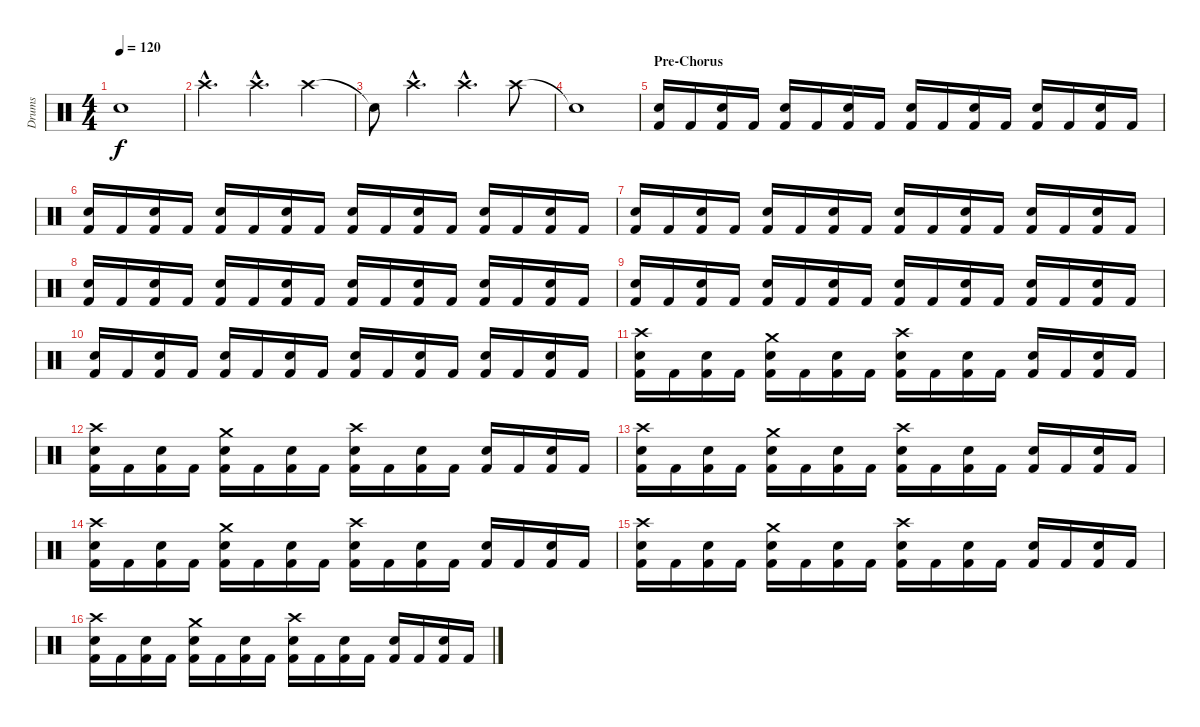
\track ("Drums" "Drums") {instrument percussion}
\staff {score}
\articulation defaults
\ts (4 4)
\tempo 120
\clef neutral
\ks c "Snare (hit)"{t}.1{dy f}
|
"Crash high (hit)"{hac}.4{d} "Crash high (hit)"{hac}.4{d} "Crash high (hit)".4 |
"Snare (hit)"{t}.8 "Crash high (hit)"{hac}.4{d} "Crash high (hit)"{hac}.4{d} "Crash high (hit)".8 |
"Snare (hit)"{t}.1 |
\section ("" "Pre-Chorus ")
("Electric Snare (hit)" "Kick (hit) 2").16 "Kick (hit) 2".16 ("Electric Snare (hit)" "Kick (hit) 2").16 "Kick (hit) 2".16 ("Electric Snare (hit)" "Kick (hit) 2").16 "Kick (hit) 2".16 ("Electric Snare (hit)" "Kick (hit) 2").16 "Kick (hit) 2".16 ("Electric Snare (hit)" "Kick (hit) 2").16 "Kick (hit) 2".16 ("Electric Snare (hit)" "Kick (hit) 2").16 "Kick (hit) 2".16 ("Electric Snare (hit)" "Kick (hit) 2").16 "Kick (hit) 2".16 ("Electric Snare (hit)" "Kick (hit) 2").16 "Kick (hit) 2".16 |
("Electric Snare (hit)" "Kick (hit) 2").16 "Kick (hit) 2".16 ("Electric Snare (hit)" "Kick (hit) 2").16 "Kick (hit) 2".16 ("Electric Snare (hit)" "Kick (hit) 2").16 "Kick (hit) 2".16 ("Electric Snare (hit)" "Kick (hit) 2").16 "Kick (hit) 2".16 ("Electric Snare (hit)" "Kick (hit) 2").16 "Kick (hit) 2".16 ("Electric Snare (hit)" "Kick (hit) 2").16 "Kick (hit) 2".16 ("Electric Snare (hit)" "Kick (hit) 2").16 "Kick (hit) 2".16 ("Electric Snare (hit)" "Kick (hit) 2").16 "Kick (hit) 2".16 |
("Electric Snare (hit)" "Kick (hit) 2").16 "Kick (hit) 2".16 ("Electric Snare (hit)" "Kick (hit) 2").16 "Kick (hit) 2".16 ("Electric Snare (hit)" "Kick (hit) 2").16 "Kick (hit) 2".16 ("Electric Snare (hit)" "Kick (hit) 2").16 "Kick (hit) 2".16 ("Electric Snare (hit)" "Kick (hit) 2").16 "Kick (hit) 2".16 ("Electric Snare (hit)" "Kick (hit) 2").16 "Kick (hit) 2".16 ("Electric Snare (hit)" "Kick (hit) 2").16 "Kick (hit) 2".16 ("Electric Snare (hit)" "Kick (hit) 2").16 "Kick (hit) 2".16 |
("Electric Snare (hit)" "Kick (hit) 2").16 "Kick (hit) 2".16 ("Electric Snare (hit)" "Kick (hit) 2").16 "Kick (hit) 2".16 ("Electric Snare (hit)" "Kick (hit) 2").16 "Kick (hit) 2".16 ("Electric Snare (hit)" "Kick (hit) 2").16 "Kick (hit) 2".16 ("Electric Snare (hit)" "Kick (hit) 2").16 "Kick (hit) 2".16 ("Electric Snare (hit)" "Kick (hit) 2").16 "Kick (hit) 2".16 ("Electric Snare (hit)" "Kick (hit) 2").16 "Kick (hit) 2".16 ("Electric Snare (hit)" "Kick (hit) 2").16 "Kick (hit) 2".16 |
("Electric Snare (hit)" "Kick (hit) 2").16 "Kick (hit) 2".16 ("Electric Snare (hit)" "Kick (hit) 2").16 "Kick (hit) 2".16 ("Electric Snare (hit)" "Kick (hit) 2").16 "Kick (hit) 2".16 ("Electric Snare (hit)" "Kick (hit) 2").16 "Kick (hit) 2".16 ("Electric Snare (hit)" "Kick (hit) 2").16 "Kick (hit) 2".16 ("Electric Snare (hit)" "Kick (hit) 2").16 "Kick (hit) 2".16 ("Electric Snare (hit)" "Kick (hit) 2").16 "Kick (hit) 2".16 ("Electric Snare (hit)" "Kick (hit) 2").16 "Kick (hit) 2".16 |
("Electric Snare (hit)" "Kick (hit) 2").16 "Kick (hit) 2".16 ("Electric Snare (hit)" "Kick (hit) 2").16 "Kick (hit) 2".16 ("Electric Snare (hit)" "Kick (hit) 2").16 "Kick (hit) 2".16 ("Electric Snare (hit)" "Kick (hit) 2").16 "Kick (hit) 2".16 ("Electric Snare (hit)" "Kick (hit) 2").16 "Kick (hit) 2".16 ("Electric Snare (hit)" "Kick (hit) 2").16 "Kick (hit) 2".16 ("Electric Snare (hit)" "Kick (hit) 2").16 "Kick (hit) 2".16 ("Electric Snare (hit)" "Kick (hit) 2").16 "Kick (hit) 2".16 |
("Crash high (hit)" "Electric Snare (hit)" "Kick (hit) 2").16 "Kick (hit) 2".16 ("Electric Snare (hit)" "Kick (hit) 2").16 "Kick (hit) 2".16 ("Crash medium (hit)" "Electric Snare (hit)" "Kick (hit) 2").16 "Kick (hit) 2".16 ("Electric Snare (hit)" "Kick (hit) 2").16 "Kick (hit) 2".16 ("Crash high (hit)" "Electric Snare (hit)" "Kick (hit) 2").16 "Kick (hit) 2".16 ("Electric Snare (hit)" "Kick (hit) 2").16 "Kick (hit) 2".16 ("Electric Snare (hit)" "Kick (hit) 2").16 "Kick (hit) 2".16 ("Electric Snare (hit)" "Kick (hit) 2").16 "Kick (hit) 2".16 |
("Crash high (hit)" "Electric Snare (hit)" "Kick (hit) 2").16 "Kick (hit) 2".16 ("Electric Snare (hit)" "Kick (hit) 2").16 "Kick (hit) 2".16 ("Crash medium (hit)" "Electric Snare (hit)" "Kick (hit) 2").16 "Kick (hit) 2".16 ("Electric Snare (hit)" "Kick (hit) 2").16 "Kick (hit) 2".16 ("Crash high (hit)" "Electric Snare (hit)" "Kick (hit) 2").16 "Kick (hit) 2".16 ("Electric Snare (hit)" "Kick (hit) 2").16 "Kick (hit) 2".16 ("Electric Snare (hit)" "Kick (hit) 2").16 "Kick (hit) 2".16 ("Electric Snare (hit)" "Kick (hit) 2").16 "Kick (hit) 2".16 |
("Crash high (hit)" "Electric Snare (hit)" "Kick (hit) 2").16 "Kick (hit) 2".16 ("Electric Snare (hit)" "Kick (hit) 2").16 "Kick (hit) 2".16 ("Crash medium (hit)" "Electric Snare (hit)" "Kick (hit) 2").16 "Kick (hit) 2".16 ("Electric Snare (hit)" "Kick (hit) 2").16 "Kick (hit) 2".16 ("Crash high (hit)" "Electric Snare (hit)" "Kick (hit) 2").16 "Kick (hit) 2".16 ("Electric Snare (hit)" "Kick (hit) 2").16 "Kick (hit) 2".16 ("Electric Snare (hit)" "Kick (hit) 2").16 "Kick (hit) 2".16 ("Electric Snare (hit)" "Kick (hit) 2").16 "Kick (hit) 2".16 |
("Crash high (hit)" "Electric Snare (hit)" "Kick (hit) 2").16 "Kick (hit) 2".16 ("Electric Snare (hit)" "Kick (hit) 2").16 "Kick (hit) 2".16 ("Crash medium (hit)" "Electric Snare (hit)" "Kick (hit) 2").16 "Kick (hit) 2".16 ("Electric Snare (hit)" "Kick (hit) 2").16 "Kick (hit) 2".16 ("Crash high (hit)" "Electric Snare (hit)" "Kick (hit) 2").16 "Kick (hit) 2".16 ("Electric Snare (hit)" "Kick (hit) 2").16 "Kick (hit) 2".16 ("Electric Snare (hit)" "Kick (hit) 2").16 "Kick (hit) 2".16 ("Electric Snare (hit)" "Kick (hit) 2").16 "Kick (hit) 2".16 |
("Crash high (hit)" "Electric Snare (hit)" "Kick (hit) 2").16 "Kick (hit) 2".16 ("Electric Snare (hit)" "Kick (hit) 2").16 "Kick (hit) 2".16 ("Crash medium (hit)" "Electric Snare (hit)" "Kick (hit) 2").16 "Kick (hit) 2".16 ("Electric Snare (hit)" "Kick (hit) 2").16 "Kick (hit) 2".16 ("Crash high (hit)" "Electric Snare (hit)" "Kick (hit) 2").16 "Kick (hit) 2".16 ("Electric Snare (hit)" "Kick (hit) 2").16 "Kick (hit) 2".16 ("Electric Snare (hit)" "Kick (hit) 2").16 "Kick (hit) 2".16 ("Electric Snare (hit)" "Kick (hit) 2").16 "Kick (hit) 2".16 |
("Crash high (hit)" "Electric Snare (hit)" "Kick (hit) 2").16 "Kick (hit) 2".16 ("Electric Snare (hit)" "Kick (hit) 2").16 "Kick (hit) 2".16 ("Crash medium (hit)" "Electric Snare (hit)" "Kick (hit) 2").16 "Kick (hit) 2".16 ("Electric Snare (hit)" "Kick (hit) 2").16 "Kick (hit) 2".16 ("Crash high (hit)" "Electric Snare (hit)" "Kick (hit) 2").16 "Kick (hit) 2".16 ("Electric Snare (hit)" "Kick (hit) 2").16 "Kick (hit) 2".16 ("Electric Snare (hit)" "Kick (hit) 2").16 "Kick (hit) 2".16 ("Electric Snare (hit)" "Kick (hit) 2").16 "Kick (hit) 2".16
